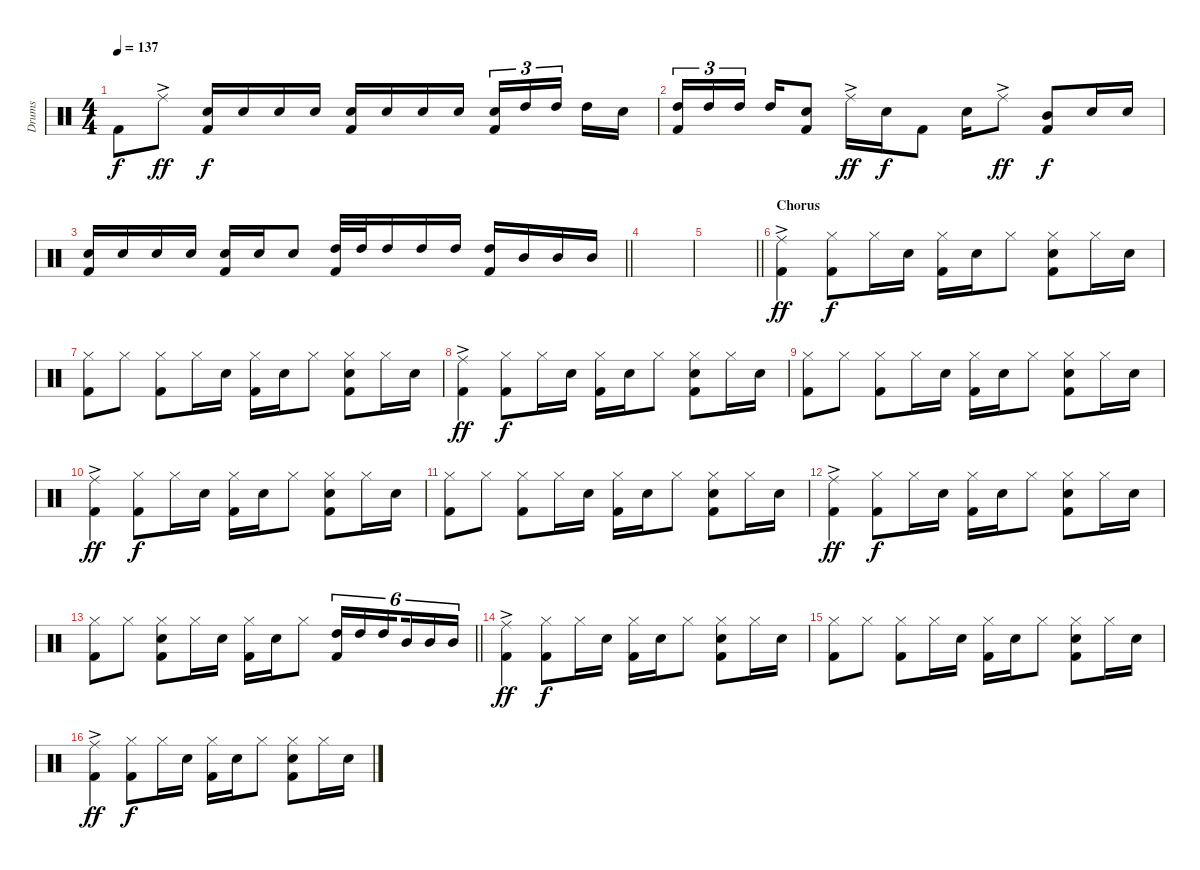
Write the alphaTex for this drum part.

\track ("Drums" "Drums") {instrument percussion}
\staff {score}
\articulation defaults
\ts (4 4)
\tempo 137
\clef neutral
\ks c "Kick (hit) 2".8{dy f} "Ride (middle)"{ac}.8{dy ff}
("Electric Snare (hit)" "Kick (hit) 2").16{dy f} "Electric Snare (hit)".16 "Electric Snare (hit)".16 "Electric Snare (hit)".16 ("Electric Snare (hit)" "Kick (hit) 2").16 "Electric Snare (hit)".16 "Electric Snare (hit)".16 "Electric Snare (hit)".16 ("Electric Snare (hit)" "Kick (hit) 2").16{tu (3 2)} "High Tom (hit)".16{tu (3 2)} "High Tom (hit)".16{tu (3 2) beam splitsecondary} "High Tom (hit)".16 "Electric Snare (hit)".16 |
("High Tom (hit)" "Kick (hit) 2").16{tu (3 2)} "High Tom (hit)".16{tu (3 2)} "High Tom (hit)".16{tu (3 2) beam splitsecondary} "High Tom (hit)".16 ("Electric Snare (hit)" "Kick (hit) 2").8 "Ride (middle)"{ac}.16{dy ff} "Electric Snare (hit)".16{dy f} "Kick (hit) 2".8 "Electric Snare (hit)".16 "Ride (middle)"{ac}.8{dy ff} ("Mid Tom (hit)" "Kick (hit) 2").8{dy f} "Electric Snare (hit)".16 "Electric Snare (hit)".16 |
\barLineRight lightlight
("Electric Snare (hit)" "Kick (hit) 2").16 "Electric Snare (hit)".16 "Electric Snare (hit)".16 "Electric Snare (hit)".16 ("Electric Snare (hit)" "Kick (hit) 2").16 "Electric Snare (hit)".16 "Electric Snare (hit)".8 ("High Tom (hit)" "Kick (hit) 2").32 "High Tom (hit)".32 "High Tom (hit)".16 "High Tom (hit)".16 "High Tom (hit)".16 ("High Tom (hit)" "Kick (hit) 2").16 "Mid Tom (hit)".16 "Mid Tom (hit)".16 "Mid Tom (hit)".16 |
|
\barLineRight lightlight
|
\section ("" "Chorus")
("Ride (middle)"{ac} "Kick (hit) 2").4{dy ff} ("Hi-Hat (closed)" "Kick (hit) 2").8{dy f} "Hi-Hat (closed)".16 "Electric Snare (hit)".16 ("Hi-Hat (closed)" "Kick (hit) 2").16 "Electric Snare (hit)".16 "Hi-Hat (closed)".8 ("Hi-Hat (closed)" "Electric Snare (hit)" "Kick (hit) 2").8 "Hi-Hat (closed)".16 "Electric Snare (hit)".16 |
("Hi-Hat (closed)" "Kick (hit) 2").8 "Hi-Hat (closed)".8 ("Hi-Hat (closed)" "Kick (hit) 2").8 "Hi-Hat (closed)".16 "Electric Snare (hit)".16 ("Hi-Hat (closed)" "Kick (hit) 2").16 "Electric Snare (hit)".16 "Hi-Hat (closed)".8 ("Hi-Hat (closed)" "Electric Snare (hit)" "Kick (hit) 2").8 "Hi-Hat (closed)".16 "Electric Snare (hit)".16 |
("Ride (middle)"{ac} "Kick (hit) 2").4{dy ff} ("Hi-Hat (closed)" "Kick (hit) 2").8{dy f} "Hi-Hat (closed)".16 "Electric Snare (hit)".16 ("Hi-Hat (closed)" "Kick (hit) 2").16 "Electric Snare (hit)".16 "Hi-Hat (closed)".8 ("Hi-Hat (closed)" "Electric Snare (hit)" "Kick (hit) 2").8 "Hi-Hat (closed)".16 "Electric Snare (hit)".16 |
("Hi-Hat (closed)" "Kick (hit) 2").8 "Hi-Hat (closed)".8 ("Hi-Hat (closed)" "Kick (hit) 2").8 "Hi-Hat (closed)".16 "Electric Snare (hit)".16 ("Hi-Hat (closed)" "Kick (hit) 2").16 "Electric Snare (hit)".16 "Hi-Hat (closed)".8 ("Hi-Hat (closed)" "Electric Snare (hit)" "Kick (hit) 2").8 "Hi-Hat (closed)".16 "Electric Snare (hit)".16 |
("Ride (middle)"{ac} "Kick (hit) 2").4{dy ff} ("Hi-Hat (closed)" "Kick (hit) 2").8{dy f} "Hi-Hat (closed)".16 "Electric Snare (hit)".16 ("Hi-Hat (closed)" "Kick (hit) 2").16 "Electric Snare (hit)".16 "Hi-Hat (closed)".8 ("Hi-Hat (closed)" "Electric Snare (hit)" "Kick (hit) 2").8 "Hi-Hat (closed)".16 "Electric Snare (hit)".16 |
("Hi-Hat (closed)" "Kick (hit) 2").8 "Hi-Hat (closed)".8 ("Hi-Hat (closed)" "Kick (hit) 2").8 "Hi-Hat (closed)".16 "Electric Snare (hit)".16 ("Hi-Hat (closed)" "Kick (hit) 2").16 "Electric Snare (hit)".16 "Hi-Hat (closed)".8 ("Hi-Hat (closed)" "Electric Snare (hit)" "Kick (hit) 2").8 "Hi-Hat (closed)".16 "Electric Snare (hit)".16 |
("Ride (middle)"{ac} "Kick (hit) 2").4{dy ff} ("Hi-Hat (closed)" "Kick (hit) 2").8{dy f} "Hi-Hat (closed)".16 "Electric Snare (hit)".16 ("Hi-Hat (closed)" "Kick (hit) 2").16 "Electric Snare (hit)".16 "Hi-Hat (closed)".8 ("Hi-Hat (closed)" "Electric Snare (hit)" "Kick (hit) 2").8 "Hi-Hat (closed)".16 "Electric Snare (hit)".16 |
\barLineRight lightlight
("Hi-Hat (closed)" "Kick (hit) 2").8 "Hi-Hat (closed)".8 ("Hi-Hat (closed)" "Electric Snare (hit)" "Kick (hit) 2").8 "Hi-Hat (closed)".16 "Electric Snare (hit)".16 ("Hi-Hat (closed)" "Kick (hit) 2").16 "Electric Snare (hit)".16 "Hi-Hat (closed)".8 ("High Tom (hit)" "Kick (hit) 2").16{tu (6 4)} "High Tom (hit)".16{tu (6 4)} "High Tom (hit)".16{tu (6 4) beam splitsecondary} "Mid Tom (hit)".16{tu (6 4)} "Mid Tom (hit)".16{tu (6 4)} "Mid Tom (hit)".16{tu (6 4)} |
\section ("" "")
("Ride (middle)"{ac} "Kick (hit) 2").4{dy ff} ("Hi-Hat (closed)" "Kick (hit) 2").8{dy f} "Hi-Hat (closed)".16 "Electric Snare (hit)".16 ("Hi-Hat (closed)" "Kick (hit) 2").16 "Electric Snare (hit)".16 "Hi-Hat (closed)".8 ("Hi-Hat (closed)" "Electric Snare (hit)" "Kick (hit) 2").8 "Hi-Hat (closed)".16 "Electric Snare (hit)".16 |
("Hi-Hat (closed)" "Kick (hit) 2").8 "Hi-Hat (closed)".8 ("Hi-Hat (closed)" "Kick (hit) 2").8 "Hi-Hat (closed)".16 "Electric Snare (hit)".16 ("Hi-Hat (closed)" "Kick (hit) 2").16 "Electric Snare (hit)".16 "Hi-Hat (closed)".8 ("Hi-Hat (closed)" "Electric Snare (hit)" "Kick (hit) 2").8 "Hi-Hat (closed)".16 "Electric Snare (hit)".16 |
("Ride (middle)"{ac} "Kick (hit) 2").4{dy ff} ("Hi-Hat (closed)" "Kick (hit) 2").8{dy f} "Hi-Hat (closed)".16 "Electric Snare (hit)".16 ("Hi-Hat (closed)" "Kick (hit) 2").16 "Electric Snare (hit)".16 "Hi-Hat (closed)".8 ("Hi-Hat (closed)" "Electric Snare (hit)" "Kick (hit) 2").8 "Hi-Hat (closed)".16 "Electric Snare (hit)".16
